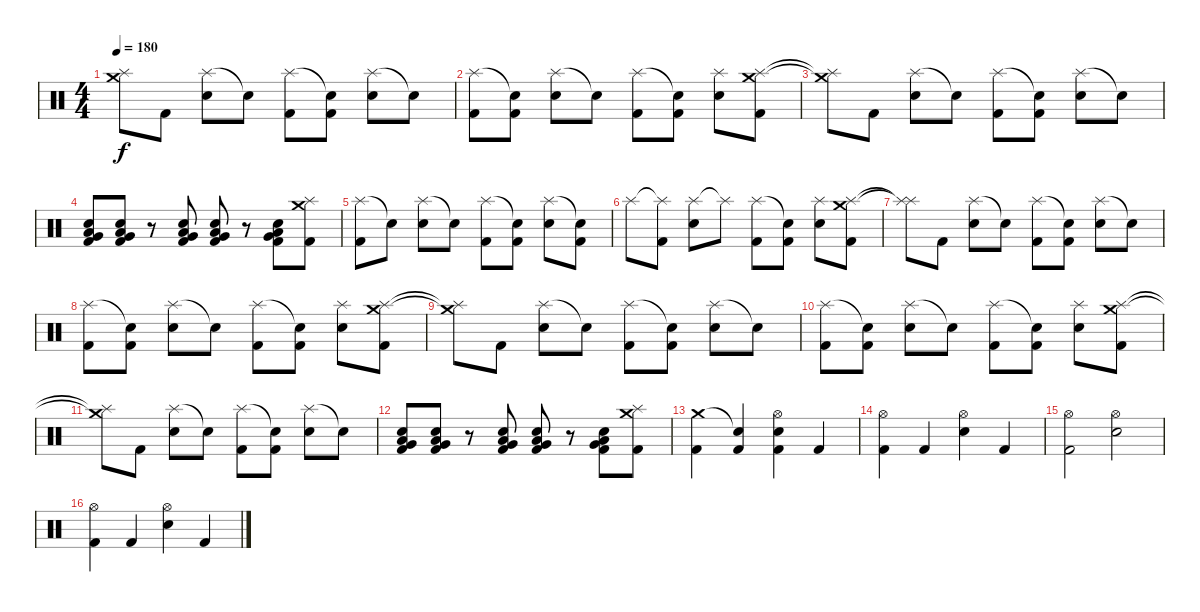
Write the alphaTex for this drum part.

\track (" " " ") {instrument percussion}
\staff {score}
\articulation defaults
\ts (4 4)
\tempo 180
\clef neutral
\ks c
("Crash medium (hit)"{t} "Splash (hit)"{t}).8{dy f} "Kick (hit) 2".8 ("Splash (hit)" "Electric Snare (hit)").8 "Snare (hit)"{t}.8 ("Splash (hit)" "Kick (hit) 2").8 ("Snare (hit)"{t} "Kick (hit) 2").8 ("Splash (hit)" "Electric Snare (hit)").8 "Snare (hit)"{t}.8 |
("Splash (hit)" "Kick (hit) 2").8 ("Snare (hit)"{t} "Kick (hit) 2").8 ("Splash (hit)" "Electric Snare (hit)").8 "Snare (hit)"{t}.8 ("Splash (hit)" "Kick (hit) 2").8 ("Snare (hit)"{t} "Kick (hit) 2").8 ("Splash (hit)" "Electric Snare (hit)").8 ("Crash medium (hit)" "Splash (hit)" "Kick (hit) 2").8 |
("Crash medium (hit)"{t} "Splash (hit)"{t}).8 "Kick (hit) 2".8 ("Splash (hit)" "Electric Snare (hit)").8 "Snare (hit)"{t}.8 ("Splash (hit)" "Kick (hit) 2").8 ("Snare (hit)"{t} "Kick (hit) 2").8 ("Splash (hit)" "Electric Snare (hit)").8 "Snare (hit)"{t}.8 |
("Electric Snare (hit)" "Low Floor Tom (hit)" "Very Low Tom (hit)" "Kick (hit) 2").8 ("Electric Snare (hit)" "Low Floor Tom (hit)" "Very Low Tom (hit)" "Kick (hit) 2").8 r.8 ("Electric Snare (hit)" "Low Floor Tom (hit)" "Very Low Tom (hit)" "Kick (hit) 2").8 ("Electric Snare (hit)" "Low Floor Tom (hit)" "Very Low Tom (hit)" "Kick (hit) 2").8 r.8 ("Electric Snare (hit)" "Low Floor Tom (hit)" "Very Low Tom (hit)" "Kick (hit) 2").8 ("Splash (hit)" "Crash medium (hit)" "Kick (hit) 2").8 |
("Splash (hit)" "Kick (hit) 2").8 "Snare (hit)"{t}.8 ("Splash (hit)" "Electric Snare (hit)").8 "Snare (hit)"{t}.8 ("Splash (hit)" "Kick (hit) 2").8 ("Snare (hit)"{t} "Kick (hit) 2").8 ("Splash (hit)" "Electric Snare (hit)").8 ("Snare (hit)"{t} "Kick (hit) 2").8 |
"Splash (hit)".8 ("Splash (hit)"{t} "Kick (hit) 2").8 ("Splash (hit)" "Electric Snare (hit)").8 "Splash (hit)"{t}.8 ("Splash (hit)" "Kick (hit) 2").8 ("Snare (hit)"{t} "Kick (hit) 2").8 ("Splash (hit)" "Electric Snare (hit)").8 ("Crash medium (hit)" "Splash (hit)" "Kick (hit) 2").8 |
("Splash (hit)"{t} "Splash (hit)"{t}).8 "Kick (hit) 2".8 ("Splash (hit)" "Electric Snare (hit)").8 "Snare (hit)"{t}.8 ("Splash (hit)" "Kick (hit) 2").8 ("Snare (hit)"{t} "Kick (hit) 2").8 ("Splash (hit)" "Electric Snare (hit)").8 "Snare (hit)"{t}.8 |
("Splash (hit)" "Kick (hit) 2").8 ("Snare (hit)"{t} "Kick (hit) 2").8 ("Splash (hit)" "Electric Snare (hit)").8 "Snare (hit)"{t}.8 ("Splash (hit)" "Kick (hit) 2").8 ("Snare (hit)"{t} "Kick (hit) 2").8 ("Splash (hit)" "Electric Snare (hit)").8 ("Crash medium (hit)" "Splash (hit)" "Kick (hit) 2").8 |
("Crash medium (hit)"{t} "Splash (hit)"{t}).8 "Kick (hit) 2".8 ("Splash (hit)" "Electric Snare (hit)").8 "Snare (hit)"{t}.8 ("Splash (hit)" "Kick (hit) 2").8 ("Snare (hit)"{t} "Kick (hit) 2").8 ("Splash (hit)" "Electric Snare (hit)").8 "Snare (hit)"{t}.8 |
("Splash (hit)" "Kick (hit) 2").8 ("Snare (hit)"{t} "Kick (hit) 2").8 ("Splash (hit)" "Electric Snare (hit)").8 "Snare (hit)"{t}.8 ("Splash (hit)" "Kick (hit) 2").8 ("Snare (hit)"{t} "Kick (hit) 2").8 ("Splash (hit)" "Electric Snare (hit)").8 ("Crash medium (hit)" "Splash (hit)" "Kick (hit) 2").8 |
("Crash medium (hit)"{t} "Splash (hit)"{t}).8 "Kick (hit) 2".8 ("Splash (hit)" "Electric Snare (hit)").8 "Snare (hit)"{t}.8 ("Splash (hit)" "Kick (hit) 2").8 ("Snare (hit)"{t} "Kick (hit) 2").8 ("Splash (hit)" "Electric Snare (hit)").8 "Snare (hit)"{t}.8 |
("Electric Snare (hit)" "Low Floor Tom (hit)" "Very Low Tom (hit)" "Kick (hit) 2").8 ("Electric Snare (hit)" "Low Floor Tom (hit)" "Very Low Tom (hit)" "Kick (hit) 2").8 r.8 ("Electric Snare (hit)" "Low Floor Tom (hit)" "Very Low Tom (hit)" "Kick (hit) 2").8 ("Electric Snare (hit)" "Low Floor Tom (hit)" "Very Low Tom (hit)" "Kick (hit) 2").8 r.8 ("Electric Snare (hit)" "Low Floor Tom (hit)" "Very Low Tom (hit)" "Kick (hit) 2").8 ("Splash (hit)" "Crash medium (hit)" "Kick (hit) 2").8 |
("Crash medium (hit)" "Kick (hit) 2").4 ("Snare (hit)"{t} "Kick (hit) 2").4 ("Hi-Hat (open)" "Electric Snare (hit)" "Kick (hit) 2").4 "Kick (hit) 2".4 |
("Hi-Hat (open)" "Kick (hit) 2").4 "Kick (hit) 2".4 ("Hi-Hat (open)" "Electric Snare (hit)").4 "Kick (hit) 2".4 |
("Hi-Hat (open)" "Kick (hit) 2").2 ("Hi-Hat (open)" "Electric Snare (hit)").2 |
("Hi-Hat (open)" "Kick (hit) 2").4 "Kick (hit) 2".4 ("Hi-Hat (open)" "Electric Snare (hit)").4 "Kick (hit) 2".4
